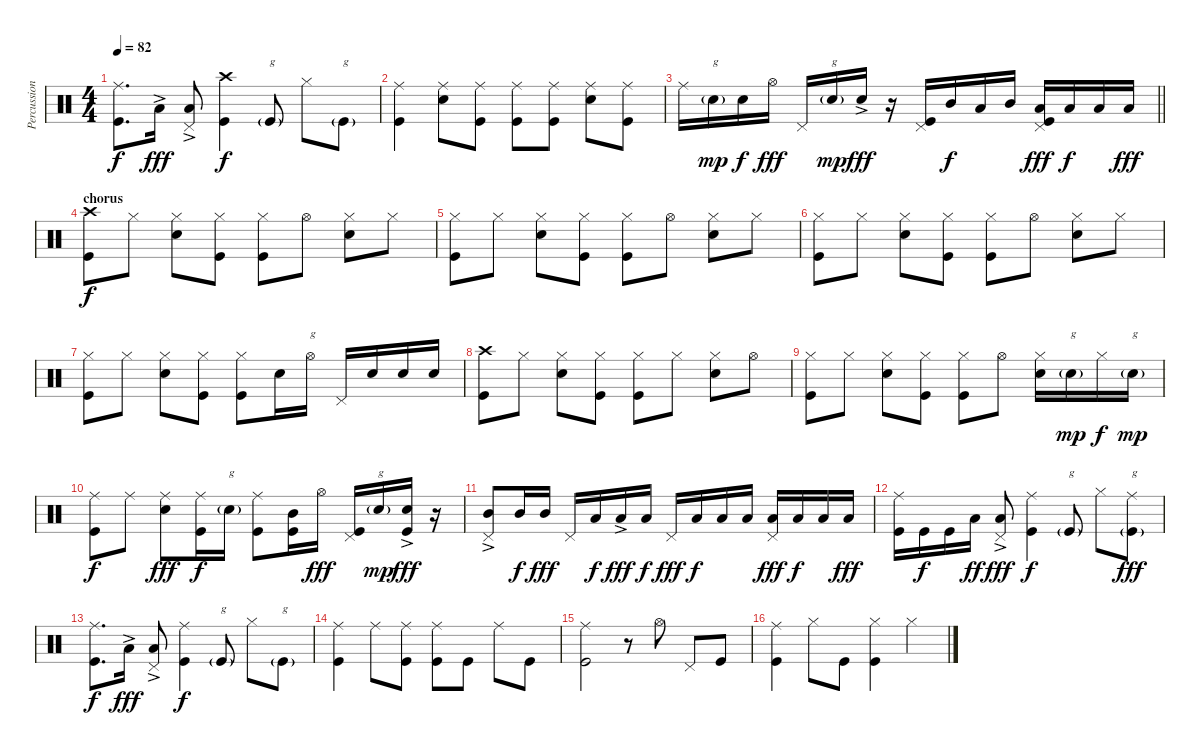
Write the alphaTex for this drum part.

\track ("Percussion" "Percussion") {instrument percussion}
\staff {score}
\articulation defaults
\ts (4 4)
\tempo 82
\clef neutral
\ks c
("Ride (middle)" "Kick (hit)").8{d dy f} "Low Floor Tom (hit)"{ac}.16{dy fff} ("Low Floor Tom (hit)"{ac} "Pedal Hi-Hat (hit)").8 ("Crash high (hit)" "Kick (hit)").4{dy f} "Kick (hit)"{g}.8{txt "g"} "Hi-Hat (closed)".8 "Kick (hit)"{g}.8{txt "g"} |
("Ride (middle)" "Kick (hit)").4 ("Ride (middle)" "Electric Snare (hit)").8 ("Ride (middle)" "Kick (hit)").8 ("Ride (middle)" "Kick (hit)").8 ("Ride (middle)" "Kick (hit)").8 ("Ride (middle)" "Electric Snare (hit)").8 ("Ride (middle)" "Kick (hit)").8 |
\barLineRight lightlight "Ride (middle)".16 "Electric Snare (hit)"{g}.16{txt "g" dy mp} "Electric Snare (hit)".16{dy f} "Hi-Hat (open)".16{dy fff} "Pedal Hi-Hat (hit)".16 "Electric Snare (hit)"{g}.16{txt "g" dy mp} "Electric Snare (hit)"{ac}.16{dy fff}
r.16 ("Pedal Hi-Hat (hit)" "Kick (hit)").16 "Mid Tom (hit)".16{dy f} "Low Tom (hit)".16 "Mid Tom (hit)".16 ("Pedal Hi-Hat (hit)" "Low Tom (hit)" "Kick (hit)").16{dy fff} "Low Tom (hit)".16{dy f} "Low Floor Tom (hit)".16 "Low Floor Tom (hit)".16{dy fff} |
\section ("" "chorus")
("Crash high (hit)" "Kick (hit)").8{dy f} "Hi-Hat (closed)".8 ("Hi-Hat (closed)" "Electric Snare (hit)").8 ("Hi-Hat (closed)" "Kick (hit)").8 ("Hi-Hat (closed)" "Kick (hit)").8 "Hi-Hat (open)".8 ("Hi-Hat (closed)" "Electric Snare (hit)").8 "Hi-Hat (closed)".8 |
("Hi-Hat (closed)" "Kick (hit)").8 "Hi-Hat (closed)".8 ("Hi-Hat (closed)" "Electric Snare (hit)").8 ("Hi-Hat (closed)" "Kick (hit)").8 ("Hi-Hat (closed)" "Kick (hit)").8 "Hi-Hat (open)".8 ("Hi-Hat (closed)" "Electric Snare (hit)").8 "Hi-Hat (closed)".8 |
("Hi-Hat (closed)" "Kick (hit)").8 "Hi-Hat (closed)".8 ("Hi-Hat (closed)" "Electric Snare (hit)").8 ("Hi-Hat (closed)" "Kick (hit)").8 ("Hi-Hat (closed)" "Kick (hit)").8 "Hi-Hat (open)".8 ("Hi-Hat (closed)" "Electric Snare (hit)").8 "Hi-Hat (closed)".8 |
("Hi-Hat (closed)" "Kick (hit)").8 "Hi-Hat (closed)".8 ("Hi-Hat (closed)" "Electric Snare (hit)").8 ("Hi-Hat (closed)" "Kick (hit)").8 ("Hi-Hat (closed)" "Kick (hit)").8 "Electric Snare (hit)".16 "Hi-Hat (open)".16{txt "g"} "Pedal Hi-Hat (hit)".16 "Electric Snare (hit)".16 "Electric Snare (hit)".16 "Electric Snare (hit)".16 |
("Crash high (hit)" "Kick (hit)").8 "Hi-Hat (closed)".8 ("Hi-Hat (closed)" "Electric Snare (hit)").8 ("Hi-Hat (closed)" "Kick (hit)").8 ("Hi-Hat (closed)" "Kick (hit)").8 "Hi-Hat (closed)".8 ("Hi-Hat (closed)" "Electric Snare (hit)").8 "Hi-Hat (open)".8 |
("Hi-Hat (closed)" "Kick (hit)").8 "Hi-Hat (closed)".8 ("Hi-Hat (closed)" "Electric Snare (hit)").8 ("Hi-Hat (closed)" "Kick (hit)").8 ("Hi-Hat (closed)" "Kick (hit)").8 "Hi-Hat (open)".8 ("Hi-Hat (closed)" "Electric Snare (hit)").16 "Electric Snare (hit)"{g}.16{txt "g" dy mp} "Hi-Hat (closed)".16{dy f} "Electric Snare (hit)"{g}.16{txt "g" dy mp} |
("Ride (middle)" "Kick (hit)").8{dy f} "Ride (middle)".8 ("Ride (middle)" "Electric Snare (hit)").8{dy fff} ("Ride (middle)" "Kick (hit)").16{dy f} "Electric Snare (hit)"{g}.16{txt "g"} ("Ride (middle)" "Kick (hit)").8 ("Mid Tom (hit)" "Kick (hit)").16 "Hi-Hat (open)".16{dy fff} ("Pedal Hi-Hat (hit)" "Kick (hit)").16 "Electric Snare (hit)"{g}.16{txt "g" dy mp} ("Electric Snare (hit)"{ac} "Kick (hit)").16{dy fff} r.16 |
("Mid Tom (hit)"{ac} "Pedal Hi-Hat (hit)").8 "Mid Tom (hit)".16{dy f} "Mid Tom (hit)".16{dy fff} "Pedal Hi-Hat (hit)".16 "Low Tom (hit)".16{dy f} "Low Tom (hit)"{ac}.16{dy fff} "Low Tom (hit)".16{dy f} "Pedal Hi-Hat (hit)".16{dy fff} "Low Tom (hit)".16{dy f} "Low Tom (hit)".16 "Low Tom (hit)".16 ("Pedal Hi-Hat (hit)" "Low Tom (hit)").16{dy fff} "Low Tom (hit)".16{dy f} "Low Floor Tom (hit)".16 "Low Floor Tom (hit)".16{dy fff} |
("Ride (middle)" "Kick (hit)").16 "Kick (hit)".16{dy f} "Kick (hit)".16 "Low Tom (hit)".16{dy ff} ("Low Tom (hit)"{ac} "Pedal Hi-Hat (hit)").8{dy fff} ("Ride (middle)" "Kick (hit)").4{dy f} "Kick (hit)"{g}.8{txt "g"} "Hi-Hat (closed)".8 ("Ride (middle)" "Kick (hit)"{g}).8{txt "g" dy fff} |
("Ride (middle)" "Kick (hit)").8{d dy f} "Low Tom (hit)"{ac}.16{dy fff} ("Low Tom (hit)"{ac} "Pedal Hi-Hat (hit)").8 ("Ride (middle)" "Kick (hit)").4{dy f} "Kick (hit)"{g}.8{txt "g"} "Hi-Hat (closed)".8 "Kick (hit)"{g}.8{txt "g"} |
("Ride (middle)" "Kick (hit)").4 "Ride (middle)".8 ("Ride (middle)" "Kick (hit)").8 ("Ride (middle)" "Kick (hit)").8 "Kick (hit)".8 "Ride (middle)".8 "Kick (hit)".8 |
("Ride (middle)" "Kick (hit)").2 r.8 "Hi-Hat (open)".8 "Pedal Hi-Hat (hit)".8 "Kick (hit)".8 |
("Ride (middle)" "Kick (hit)").4 "Hi-Hat (closed)".8{volume 0} "Kick (hit)".8 ("Hi-Hat (closed)" "Kick (hit)").4 "Hi-Hat (closed)".4
